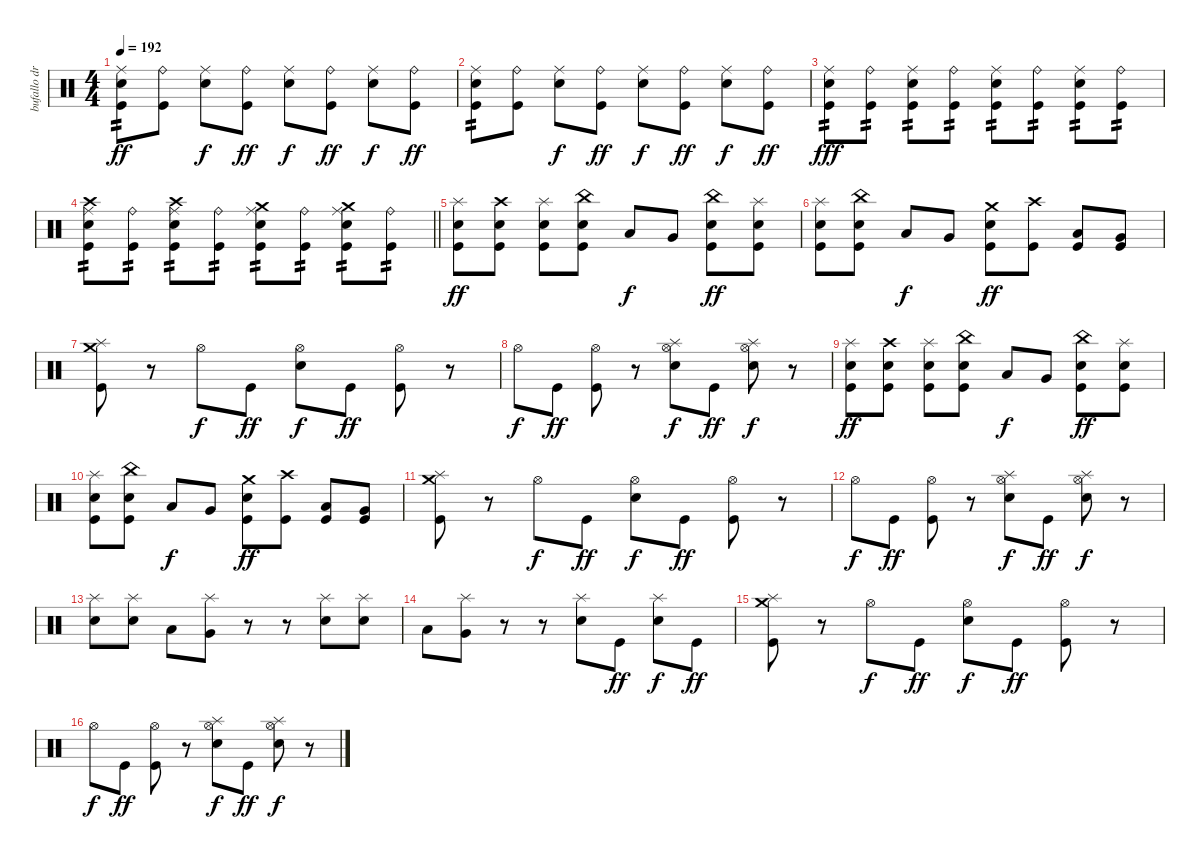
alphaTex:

\track ("bufallo drums" "bufallo dr") {instrument percussion}
\staff {score}
\articulation defaults
\ts (4 4)
\tempo 192
\clef neutral
\ks c
("Ride (middle)" "Electric Snare (hit)" "Kick (hit)").8{tp 2 dy ff} ("Ride (bell)" "Kick (hit)").8 ("Ride (middle)" "Electric Snare (hit)").8{dy f} ("Ride (bell)" "Kick (hit)").8{dy ff} ("Ride (middle)" "Electric Snare (hit)").8{dy f} ("Ride (bell)" "Kick (hit)").8{dy ff} ("Ride (middle)" "Electric Snare (hit)").8{dy f} ("Ride (bell)" "Kick (hit)").8{dy ff} |
("Ride (middle)" "Electric Snare (hit)" "Kick (hit)").8{tp 2} ("Ride (bell)" "Kick (hit)").8 ("Ride (middle)" "Electric Snare (hit)").8{dy f} ("Ride (bell)" "Kick (hit)").8{dy ff} ("Ride (middle)" "Electric Snare (hit)").8{dy f} ("Ride (bell)" "Kick (hit)").8{dy ff} ("Ride (middle)" "Electric Snare (hit)").8{dy f} ("Ride (bell)" "Kick (hit)").8{dy ff} |
("Ride (middle)" "Electric Snare (hit)" "Kick (hit)").8{tp 2 dy fff} ("Ride (bell)" "Kick (hit)").8{tp 2} ("Ride (middle)" "Electric Snare (hit)" "Kick (hit)").8{tp 2} ("Ride (bell)" "Kick (hit)").8{tp 2} ("Ride (middle)" "Electric Snare (hit)" "Kick (hit)").8{tp 2} ("Ride (bell)" "Kick (hit)").8{tp 2} ("Ride (middle)" "Electric Snare (hit)" "Kick (hit)").8{tp 2} ("Ride (bell)" "Kick (hit)").8{tp 2} |
\barLineRight lightlight
("Crash high (hit)" "Ride (middle)" "Electric Snare (hit)" "Kick (hit)").8{tp 2} ("Ride (bell)" "Kick (hit)").8{tp 2} ("Crash high (hit)" "Ride (middle)" "Electric Snare (hit)" "Kick (hit)").8{tp 2} ("Ride (bell)" "Kick (hit)").8{tp 2} ("Crash medium (hit)" "Ride (middle)" "Electric Snare (hit)" "Kick (hit)").8{tp 2} ("Ride (bell)" "Kick (hit)").8{tp 2} ("Crash medium (hit)" "Ride (middle)" "Electric Snare (hit)" "Kick (hit)").8{tp 2} ("Ride (bell)" "Kick (hit)").8{tp 2} |
("Splash (hit)" "Electric Snare (hit)" "Kick (hit)").8{dy ff} ("Crash high (hit)" "Electric Snare (hit)" "Kick (hit)").8 ("Splash (hit)" "Electric Snare (hit)" "Kick (hit)").8 ("China (hit)" "Electric Snare (hit)" "Kick (hit)").8 "Low Tom (hit)".8{dy f} "Very Low Tom (hit)".8 ("China (hit)" "Electric Snare (hit)" "Kick (hit)").8{dy ff} ("Splash (hit)" "Electric Snare (hit)" "Kick (hit)").8 |
("Splash (hit)" "Electric Snare (hit)" "Kick (hit)").8 ("China (hit)" "Electric Snare (hit)" "Kick (hit)").8 "Low Tom (hit)".8{dy f} "Very Low Tom (hit)".8 ("Crash medium (hit)" "Electric Snare (hit)" "Kick (hit)").8{dy ff} ("Crash high (hit)" "Kick (hit)").8 ("Low Tom (hit)" "Kick (hit)").8 ("Very Low Tom (hit)" "Kick (hit)").8 |
("Crash medium (hit)" "Splash (hit)" "Kick (hit)").8 r.8 "Hi-Hat (open)".8{dy f} "Kick (hit)".8{dy ff} ("Hi-Hat (open)" "Electric Snare (hit)").8{dy f} "Kick (hit)".8{dy ff} ("Hi-Hat (open)" "Kick (hit)").8 r.8 |
"Hi-Hat (open)".8{dy f} "Kick (hit)".8{dy ff} ("Hi-Hat (open)" "Kick (hit)").8 r.8 ("Hi-Hat (open)" "Splash (hit)" "Electric Snare (hit)").8{dy f} "Kick (hit)".8{dy ff} ("Hi-Hat (open)" "Splash (hit)" "Electric Snare (hit)").8{dy f} r.8 |
("Splash (hit)" "Electric Snare (hit)" "Kick (hit)").8{dy ff} ("Crash high (hit)" "Electric Snare (hit)" "Kick (hit)").8 ("Splash (hit)" "Electric Snare (hit)" "Kick (hit)").8 ("China (hit)" "Electric Snare (hit)" "Kick (hit)").8 "Low Tom (hit)".8{dy f} "Very Low Tom (hit)".8 ("China (hit)" "Electric Snare (hit)" "Kick (hit)").8{dy ff} ("Splash (hit)" "Electric Snare (hit)" "Kick (hit)").8 |
("Splash (hit)" "Electric Snare (hit)" "Kick (hit)").8 ("China (hit)" "Electric Snare (hit)" "Kick (hit)").8 "Low Tom (hit)".8{dy f} "Very Low Tom (hit)".8 ("Crash medium (hit)" "Electric Snare (hit)" "Kick (hit)").8{dy ff} ("Crash high (hit)" "Kick (hit)").8 ("Low Tom (hit)" "Kick (hit)").8 ("Very Low Tom (hit)" "Kick (hit)").8 |
("Crash medium (hit)" "Splash (hit)" "Kick (hit)").8 r.8 "Hi-Hat (open)".8{dy f} "Kick (hit)".8{dy ff} ("Hi-Hat (open)" "Electric Snare (hit)").8{dy f} "Kick (hit)".8{dy ff} ("Hi-Hat (open)" "Kick (hit)").8 r.8 |
"Hi-Hat (open)".8{dy f} "Kick (hit)".8{dy ff} ("Hi-Hat (open)" "Kick (hit)").8 r.8 ("Hi-Hat (open)" "Splash (hit)" "Electric Snare (hit)").8{dy f} "Kick (hit)".8{dy ff} ("Hi-Hat (open)" "Splash (hit)" "Electric Snare (hit)").8{dy f} r.8 |
("Splash (hit)" "Electric Snare (hit)").8 ("Splash (hit)" "Electric Snare (hit)").8 "Low Tom (hit)".8 ("Splash (hit)" "Very Low Tom (hit)").8 r.8 r.8 ("Splash (hit)" "Electric Snare (hit)").8 ("Splash (hit)" "Electric Snare (hit)").8 |
"Low Tom (hit)".8 ("Splash (hit)" "Very Low Tom (hit)").8 r.8 r.8 ("Splash (hit)" "Electric Snare (hit)").8 "Kick (hit)".8{dy ff} ("Splash (hit)" "Electric Snare (hit)").8{dy f} "Kick (hit)".8{dy ff} |
("Crash medium (hit)" "Splash (hit)" "Kick (hit)").8 r.8 "Hi-Hat (open)".8{dy f} "Kick (hit)".8{dy ff} ("Hi-Hat (open)" "Electric Snare (hit)").8{dy f} "Kick (hit)".8{dy ff} ("Hi-Hat (open)" "Kick (hit)").8 r.8 |
"Hi-Hat (open)".8{dy f} "Kick (hit)".8{dy ff} ("Hi-Hat (open)" "Kick (hit)").8 r.8 ("Hi-Hat (open)" "Splash (hit)" "Electric Snare (hit)").8{dy f} "Kick (hit)".8{dy ff} ("Hi-Hat (open)" "Splash (hit)" "Electric Snare (hit)").8{dy f} r.8
